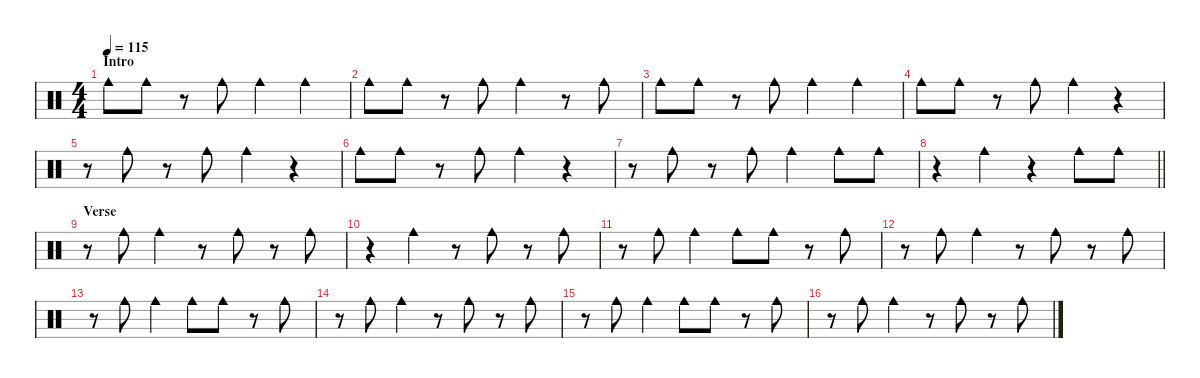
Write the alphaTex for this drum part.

\defaultSystemsLayout 4
\hideDynamics
\bracketExtendMode nobrackets
\singleTrackTrackNamePolicy hidden
\multiTrackTrackNamePolicy hidden
\otherSystemsTrackNameOrientation horizontal
\track ("Cowbell" "drm.") {defaultSystemsLayout 8 instrument percussion}
\staff {score}
\articulation defaults
\ts (4 4)
\beaming (8 2 2 2 2)
\section ("" "Intro")
\tempo 115
\clef neutral
\ks c "Cowbell medium (hit)".8{dy f} "Cowbell medium (hit)".8
r.8 "Cowbell medium (hit)".8 "Cowbell medium (hit)".4 "Cowbell medium (hit)".4 |
"Cowbell medium (hit)".8 "Cowbell medium (hit)".8 r.8 "Cowbell medium (hit)".8 "Cowbell medium (hit)".4 r.8 "Cowbell medium (hit)".8 |
"Cowbell medium (hit)".8 "Cowbell medium (hit)".8 r.8 "Cowbell medium (hit)".8 "Cowbell medium (hit)".4 "Cowbell medium (hit)".4 |
"Cowbell medium (hit)".8 "Cowbell medium (hit)".8 r.8 "Cowbell medium (hit)".8 "Cowbell medium (hit)".4 r.4 |
r.8 "Cowbell medium (hit)".8 r.8 "Cowbell medium (hit)".8 "Cowbell medium (hit)".4 r.4 |
"Cowbell medium (hit)".8 "Cowbell medium (hit)".8 r.8 "Cowbell medium (hit)".8 "Cowbell medium (hit)".4 r.4 |
r.8 "Cowbell medium (hit)".8 r.8 "Cowbell medium (hit)".8 "Cowbell medium (hit)".4 "Cowbell medium (hit)".8 "Cowbell medium (hit)".8 |
\barLineRight lightlight
r.4 "Cowbell medium (hit)".4 r.4 "Cowbell medium (hit)".8 "Cowbell medium (hit)".8 |
\section ("" "Verse")
r.8 "Cowbell medium (hit)".8 "Cowbell medium (hit)".4 r.8 "Cowbell medium (hit)".8 r.8 "Cowbell medium (hit)".8 |
r.4 "Cowbell medium (hit)".4 r.8 "Cowbell medium (hit)".8 r.8 "Cowbell medium (hit)".8 |
r.8 "Cowbell medium (hit)".8 "Cowbell medium (hit)".4 "Cowbell medium (hit)".8 "Cowbell medium (hit)".8 r.8 "Cowbell medium (hit)".8 |
r.8 "Cowbell medium (hit)".8 "Cowbell medium (hit)".4 r.8 "Cowbell medium (hit)".8 r.8 "Cowbell medium (hit)".8 |
r.8 "Cowbell medium (hit)".8 "Cowbell medium (hit)".4 "Cowbell medium (hit)".8 "Cowbell medium (hit)".8 r.8 "Cowbell medium (hit)".8 |
r.8 "Cowbell medium (hit)".8 "Cowbell medium (hit)".4 r.8 "Cowbell medium (hit)".8 r.8 "Cowbell medium (hit)".8 |
r.8 "Cowbell medium (hit)".8 "Cowbell medium (hit)".4 "Cowbell medium (hit)".8 "Cowbell medium (hit)".8 r.8 "Cowbell medium (hit)".8 |
r.8 "Cowbell medium (hit)".8 "Cowbell medium (hit)".4 r.8 "Cowbell medium (hit)".8 r.8 "Cowbell medium (hit)".8
